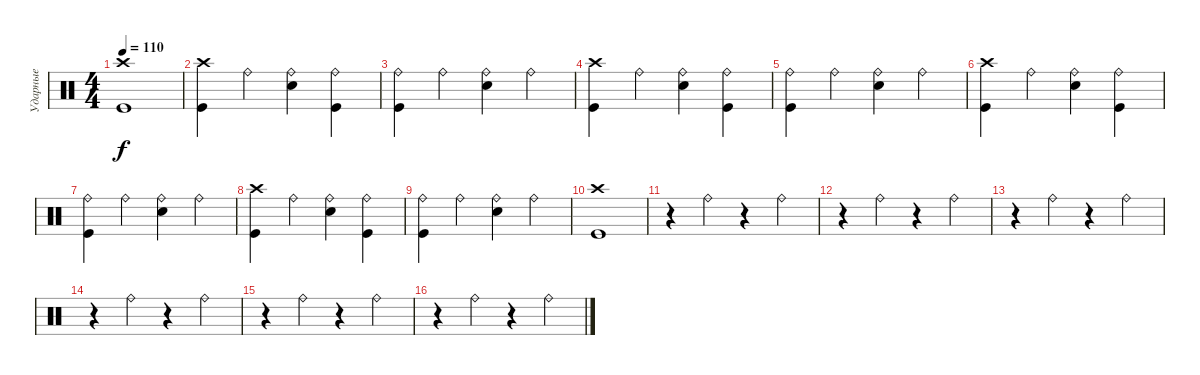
\track ("Ударные" "Ударные") {instrument percussion}
\staff {score}
\articulation defaults
\ts (4 4)
\tempo 110
\clef neutral
\ks c
("Crash high (hit)" "Kick (hit)").1{dy f} |
("Crash high (hit)" "Kick (hit)").4 "Ride (bell)".4 ("Ride (bell)" "Electric Snare (hit)").4 ("Ride (bell)" "Kick (hit)").4 |
("Ride (bell)" "Kick (hit)").4 "Ride (bell)".4 ("Ride (bell)" "Electric Snare (hit)").4 "Ride (bell)".4 |
("Crash high (hit)" "Kick (hit)").4 "Ride (bell)".4 ("Ride (bell)" "Electric Snare (hit)").4 ("Ride (bell)" "Kick (hit)").4 |
("Ride (bell)" "Kick (hit)").4 "Ride (bell)".4 ("Ride (bell)" "Electric Snare (hit)").4 "Ride (bell)".4 |
("Crash high (hit)" "Kick (hit)").4 "Ride (bell)".4 ("Ride (bell)" "Electric Snare (hit)").4 ("Ride (bell)" "Kick (hit)").4 |
("Ride (bell)" "Kick (hit)").4 "Ride (bell)".4 ("Ride (bell)" "Electric Snare (hit)").4 "Ride (bell)".4 |
("Crash high (hit)" "Kick (hit)").4 "Ride (bell)".4 ("Ride (bell)" "Electric Snare (hit)").4 ("Ride (bell)" "Kick (hit)").4 |
("Ride (bell)" "Kick (hit)").4 "Ride (bell)".4 ("Ride (bell)" "Electric Snare (hit)").4 "Ride (bell)".4 |
("Crash high (hit)" "Kick (hit)").1 |
r.4 "Ride (bell)".4 r.4 "Ride (bell)".4 |
r.4 "Ride (bell)".4 r.4 "Ride (bell)".4 |
r.4 "Ride (bell)".4 r.4 "Ride (bell)".4 |
r.4 "Ride (bell)".4 r.4 "Ride (bell)".4 |
r.4 "Ride (bell)".4 r.4 "Ride (bell)".4 |
r.4 "Ride (bell)".4 r.4 "Ride (bell)".4
